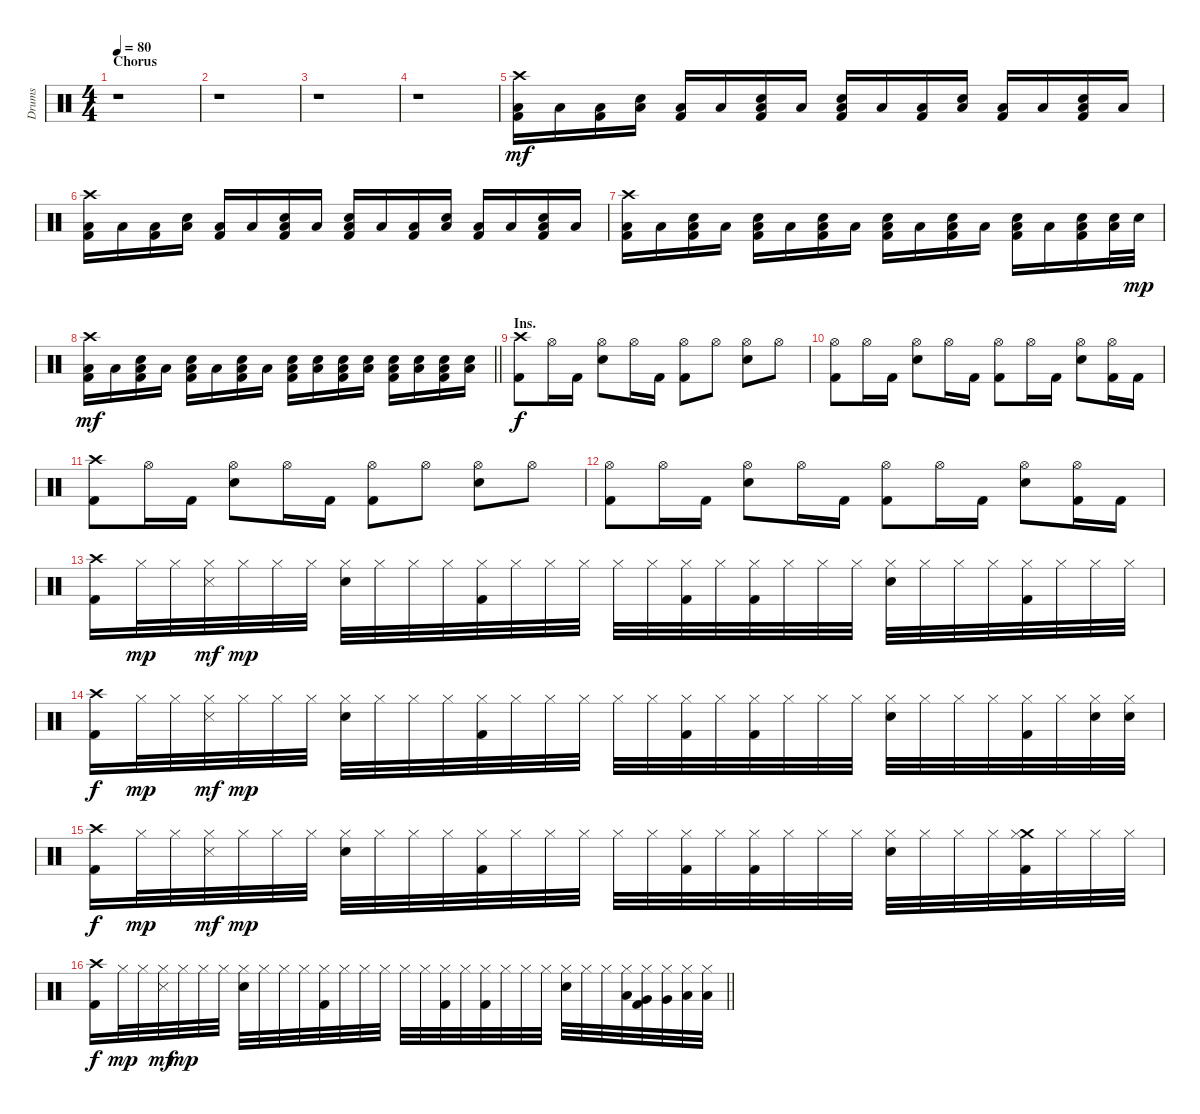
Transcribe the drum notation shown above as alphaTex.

\track ("Drums" "Drums") {instrument percussion}
\staff {score}
\articulation defaults
\ts (4 4)
\section ("" "Chorus")
\tempo 80
\clef neutral
\ks c
r.1{dy mf} |
r.1 |
r.1 |
r.1 |
("Crash high (hit)" "Low Floor Tom (hit)" "Kick (hit) 2").16 "Low Floor Tom (hit)".16 ("Low Floor Tom (hit)" "Kick (hit) 2").16 ("Electric Snare (hit)" "Low Floor Tom (hit)").16 ("Low Floor Tom (hit)" "Kick (hit) 2").16 "Low Floor Tom (hit)".16 ("Electric Snare (hit)" "Low Floor Tom (hit)" "Kick (hit) 2").16 "Low Floor Tom (hit)".16 ("Electric Snare (hit)" "Low Floor Tom (hit)" "Kick (hit) 2").16 "Low Floor Tom (hit)".16 ("Low Floor Tom (hit)" "Kick (hit) 2").16 ("Electric Snare (hit)" "Low Floor Tom (hit)").16 ("Low Floor Tom (hit)" "Kick (hit) 2").16 "Low Floor Tom (hit)".16 ("Electric Snare (hit)" "Low Floor Tom (hit)" "Kick (hit) 2").16 "Low Floor Tom (hit)".16 |
("Crash high (hit)" "Low Floor Tom (hit)" "Kick (hit) 2").16 "Low Floor Tom (hit)".16 ("Low Floor Tom (hit)" "Kick (hit) 2").16 ("Electric Snare (hit)" "Low Floor Tom (hit)").16 ("Low Floor Tom (hit)" "Kick (hit) 2").16 "Low Floor Tom (hit)".16 ("Electric Snare (hit)" "Low Floor Tom (hit)" "Kick (hit) 2").16 "Low Floor Tom (hit)".16 ("Electric Snare (hit)" "Low Floor Tom (hit)" "Kick (hit) 2").16 "Low Floor Tom (hit)".16 ("Low Floor Tom (hit)" "Kick (hit) 2").16 ("Electric Snare (hit)" "Low Floor Tom (hit)").16 ("Low Floor Tom (hit)" "Kick (hit) 2").16 "Low Floor Tom (hit)".16 ("Electric Snare (hit)" "Low Floor Tom (hit)" "Kick (hit) 2").16 "Low Floor Tom (hit)".16 |
("Crash high (hit)" "Low Floor Tom (hit)" "Kick (hit) 2").16 "Low Floor Tom (hit)".16 ("Electric Snare (hit)" "Low Floor Tom (hit)" "Kick (hit) 2").16 "Low Floor Tom (hit)".16 ("Electric Snare (hit)" "Low Floor Tom (hit)" "Kick (hit) 2").16 "Low Floor Tom (hit)".16 ("Electric Snare (hit)" "Low Floor Tom (hit)" "Kick (hit) 2").16 "Low Floor Tom (hit)".16 ("Electric Snare (hit)" "Low Floor Tom (hit)" "Kick (hit) 2").16 "Low Floor Tom (hit)".16 ("Electric Snare (hit)" "Low Floor Tom (hit)" "Kick (hit) 2").16 "Low Floor Tom (hit)".16 ("Electric Snare (hit)" "Low Floor Tom (hit)" "Kick (hit) 2").16 "Low Floor Tom (hit)".16 ("Electric Snare (hit)" "Low Floor Tom (hit)" "Kick (hit) 2").16 ("Electric Snare (hit)" "Low Floor Tom (hit)").32 "Electric Snare (hit)".32{dy mp} |
\barLineRight lightlight
("Crash high (hit)" "Low Floor Tom (hit)" "Kick (hit) 2").16{dy mf} "Low Floor Tom (hit)".16 ("Electric Snare (hit)" "Low Floor Tom (hit)" "Kick (hit) 2").16 "Low Floor Tom (hit)".16 ("Electric Snare (hit)" "Low Floor Tom (hit)" "Kick (hit) 2").16 "Low Floor Tom (hit)".16 ("Electric Snare (hit)" "Low Floor Tom (hit)" "Kick (hit) 2").16 "Low Floor Tom (hit)".16 ("Electric Snare (hit)" "Low Floor Tom (hit)" "Kick (hit) 2").16 ("Electric Snare (hit)" "Low Floor Tom (hit)").16 ("Electric Snare (hit)" "Low Floor Tom (hit)" "Kick (hit) 2").16 ("Electric Snare (hit)" "Low Floor Tom (hit)").16 ("Electric Snare (hit)" "Low Floor Tom (hit)" "Kick (hit) 2").16 ("Electric Snare (hit)" "Low Floor Tom (hit)").16 ("Electric Snare (hit)" "Low Floor Tom (hit)" "Kick (hit) 2").16 ("Electric Snare (hit)" "Low Floor Tom (hit)").16 |
\section ("" "Ins.")
("Crash high (hit)" "Kick (hit) 2").8{dy f} "Hi-Hat (open)".16 "Kick (hit) 2".16 ("Hi-Hat (open)" "Electric Snare (hit)").8 "Hi-Hat (open)".16 "Kick (hit) 2".16 ("Hi-Hat (open)" "Kick (hit) 2").8 "Hi-Hat (open)".8 ("Hi-Hat (open)" "Electric Snare (hit)").8 "Hi-Hat (open)".8 |
("Hi-Hat (open)" "Kick (hit) 2").8 "Hi-Hat (open)".16 "Kick (hit) 2".16 ("Hi-Hat (open)" "Electric Snare (hit)").8 "Hi-Hat (open)".16 "Kick (hit) 2".16 ("Hi-Hat (open)" "Kick (hit) 2").8 "Hi-Hat (open)".16 "Kick (hit) 2".16 ("Hi-Hat (open)" "Electric Snare (hit)").8 ("Hi-Hat (open)" "Kick (hit) 2").16 "Kick (hit) 2".16 |
("Crash high (hit)" "Kick (hit) 2").8 "Hi-Hat (open)".16 "Kick (hit) 2".16 ("Hi-Hat (open)" "Electric Snare (hit)").8 "Hi-Hat (open)".16 "Kick (hit) 2".16 ("Hi-Hat (open)" "Kick (hit) 2").8 "Hi-Hat (open)".8 ("Hi-Hat (open)" "Electric Snare (hit)").8 "Hi-Hat (open)".8 |
("Hi-Hat (open)" "Kick (hit) 2").8 "Hi-Hat (open)".16 "Kick (hit) 2".16 ("Hi-Hat (open)" "Electric Snare (hit)").8 "Hi-Hat (open)".16 "Kick (hit) 2".16 ("Hi-Hat (open)" "Kick (hit) 2").8 "Hi-Hat (open)".16 "Kick (hit) 2".16 ("Hi-Hat (open)" "Electric Snare (hit)").8 ("Hi-Hat (open)" "Kick (hit) 2").16 "Kick (hit) 2".16 |
("Crash high (hit)" "Kick (hit) 2").16 "Hi-Hat (closed)".32{dy mp} "Hi-Hat (closed)".32 ("Hi-Hat (closed)" "Snare (side stick) 3").32{dy mf} "Hi-Hat (closed)".32{dy mp} "Hi-Hat (closed)".32 "Hi-Hat (closed)".32 ("Hi-Hat (closed)" "Electric Snare (hit)").32 "Hi-Hat (closed)".32 "Hi-Hat (closed)".32 "Hi-Hat (closed)".32 ("Hi-Hat (closed)" "Kick (hit) 2").32 "Hi-Hat (closed)".32 "Hi-Hat (closed)".32 "Hi-Hat (closed)".32 "Hi-Hat (closed)".32 "Hi-Hat (closed)".32 ("Hi-Hat (closed)" "Kick (hit) 2").32 "Hi-Hat (closed)".32 ("Hi-Hat (closed)" "Kick (hit) 2").32 "Hi-Hat (closed)".32 "Hi-Hat (closed)".32 "Hi-Hat (closed)".32 ("Hi-Hat (closed)" "Electric Snare (hit)").32 "Hi-Hat (closed)".32 "Hi-Hat (closed)".32 "Hi-Hat (closed)".32 ("Hi-Hat (closed)" "Kick (hit) 2").32 "Hi-Hat (closed)".32 "Hi-Hat (closed)".32 "Hi-Hat (closed)".32 |
("Crash high (hit)" "Kick (hit) 2").16{dy f} "Hi-Hat (closed)".32{dy mp} "Hi-Hat (closed)".32 ("Hi-Hat (closed)" "Snare (side stick) 3").32{dy mf} "Hi-Hat (closed)".32{dy mp} "Hi-Hat (closed)".32 "Hi-Hat (closed)".32 ("Hi-Hat (closed)" "Electric Snare (hit)").32 "Hi-Hat (closed)".32 "Hi-Hat (closed)".32 "Hi-Hat (closed)".32 ("Hi-Hat (closed)" "Kick (hit) 2").32 "Hi-Hat (closed)".32 "Hi-Hat (closed)".32 "Hi-Hat (closed)".32 "Hi-Hat (closed)".32 "Hi-Hat (closed)".32 ("Hi-Hat (closed)" "Kick (hit) 2").32 "Hi-Hat (closed)".32 ("Hi-Hat (closed)" "Kick (hit) 2").32 "Hi-Hat (closed)".32 "Hi-Hat (closed)".32 "Hi-Hat (closed)".32 ("Hi-Hat (closed)" "Electric Snare (hit)").32 "Hi-Hat (closed)".32 "Hi-Hat (closed)".32 "Hi-Hat (closed)".32 ("Hi-Hat (closed)" "Kick (hit) 2").32 "Hi-Hat (closed)".32 ("Hi-Hat (closed)" "Electric Snare (hit)").32 ("Hi-Hat (closed)" "Electric Snare (hit)").32 |
("Crash high (hit)" "Kick (hit) 2").16{dy f} "Hi-Hat (closed)".32{dy mp} "Hi-Hat (closed)".32 ("Hi-Hat (closed)" "Snare (side stick) 3").32{dy mf} "Hi-Hat (closed)".32{dy mp} "Hi-Hat (closed)".32 "Hi-Hat (closed)".32 ("Hi-Hat (closed)" "Electric Snare (hit)").32 "Hi-Hat (closed)".32 "Hi-Hat (closed)".32 "Hi-Hat (closed)".32 ("Hi-Hat (closed)" "Kick (hit) 2").32 "Hi-Hat (closed)".32 "Hi-Hat (closed)".32 "Hi-Hat (closed)".32 "Hi-Hat (closed)".32 "Hi-Hat (closed)".32 ("Hi-Hat (closed)" "Kick (hit) 2").32 "Hi-Hat (closed)".32 ("Hi-Hat (closed)" "Kick (hit) 2").32 "Hi-Hat (closed)".32 "Hi-Hat (closed)".32 "Hi-Hat (closed)".32 ("Hi-Hat (closed)" "Electric Snare (hit)").32 "Hi-Hat (closed)".32 "Hi-Hat (closed)".32 "Hi-Hat (closed)".32 ("Crash medium (hit)" "Hi-Hat (closed)" "Kick (hit) 2").32 "Hi-Hat (closed)".32 "Hi-Hat (closed)".32 "Hi-Hat (closed)".32 |
\barLineRight lightlight
("Crash high (hit)" "Kick (hit) 2").16{dy f} "Hi-Hat (closed)".32{dy mp} "Hi-Hat (closed)".32 ("Hi-Hat (closed)" "Snare (side stick) 3").32{dy mf} "Hi-Hat (closed)".32{dy mp} "Hi-Hat (closed)".32 "Hi-Hat (closed)".32 ("Hi-Hat (closed)" "Electric Snare (hit)").32 "Hi-Hat (closed)".32 "Hi-Hat (closed)".32 "Hi-Hat (closed)".32 ("Hi-Hat (closed)" "Kick (hit) 2").32 "Hi-Hat (closed)".32 "Hi-Hat (closed)".32 "Hi-Hat (closed)".32 "Hi-Hat (closed)".32 "Hi-Hat (closed)".32 ("Hi-Hat (closed)" "Kick (hit) 2").32 "Hi-Hat (closed)".32 ("Hi-Hat (closed)" "Kick (hit) 2").32 "Hi-Hat (closed)".32 "Hi-Hat (closed)".32 "Hi-Hat (closed)".32 ("Hi-Hat (closed)" "Electric Snare (hit)").32 "Hi-Hat (closed)".32 "Hi-Hat (closed)".32 ("Hi-Hat (closed)" "Low Tom (hit)").32 ("Hi-Hat (closed)" "Very Low Tom (hit)" "Kick (hit) 2").32 ("Hi-Hat (closed)" "Very Low Tom (hit)").32 ("Hi-Hat (closed)" "Low Floor Tom (hit)").32 ("Hi-Hat (closed)" "Low Floor Tom (hit)").32
